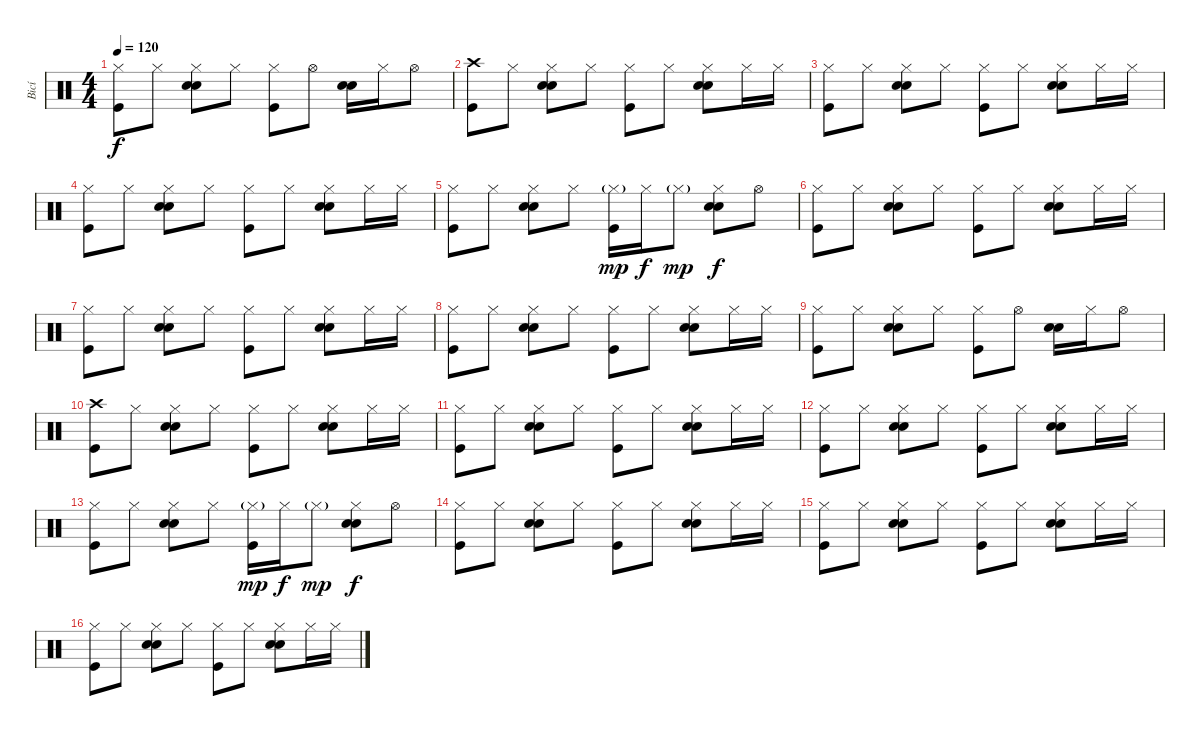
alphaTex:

\track ("Bicí" "Bicí") {instrument percussion}
\staff {score}
\articulation defaults
\ts (4 4)
\tempo 120
\clef neutral
\ks c
("Hi-Hat (closed)" "Kick (hit)").8{dy f} "Hi-Hat (closed)".8 ("Hi-Hat (closed)" "Hand Clap (hit)" "Electric Snare (hit)").8 "Hi-Hat (closed)".8 ("Hi-Hat (closed)" "Kick (hit)").8 "Hi-Hat (open)".8 ("Hand Clap (hit)" "Electric Snare (hit)").16 "Hi-Hat (closed)".16 "Hi-Hat (open)".8 |
("Crash high (hit)" "Kick (hit)").8 "Hi-Hat (closed)".8 ("Hi-Hat (closed)" "Hand Clap (hit)" "Electric Snare (hit)").8 "Hi-Hat (closed)".8 ("Hi-Hat (closed)" "Kick (hit)").8 "Hi-Hat (closed)".8 ("Hi-Hat (closed)" "Hand Clap (hit)" "Electric Snare (hit)").8 "Hi-Hat (closed)".16 "Hi-Hat (closed)".16 |
("Hi-Hat (closed)" "Kick (hit)").8 "Hi-Hat (closed)".8 ("Hi-Hat (closed)" "Hand Clap (hit)" "Electric Snare (hit)").8 "Hi-Hat (closed)".8 ("Hi-Hat (closed)" "Kick (hit)").8 "Hi-Hat (closed)".8 ("Hi-Hat (closed)" "Hand Clap (hit)" "Electric Snare (hit)").8 "Hi-Hat (closed)".16 "Hi-Hat (closed)".16 |
("Hi-Hat (closed)" "Kick (hit)").8 "Hi-Hat (closed)".8 ("Hi-Hat (closed)" "Hand Clap (hit)" "Electric Snare (hit)").8 "Hi-Hat (closed)".8 ("Hi-Hat (closed)" "Kick (hit)").8 "Hi-Hat (closed)".8 ("Hi-Hat (closed)" "Hand Clap (hit)" "Electric Snare (hit)").8 "Hi-Hat (closed)".16 "Hi-Hat (closed)".16 |
("Hi-Hat (closed)" "Kick (hit)").8 "Hi-Hat (closed)".8 ("Hi-Hat (closed)" "Hand Clap (hit)" "Electric Snare (hit)").8 "Hi-Hat (closed)".8 ("Hi-Hat (closed)"{g} "Kick (hit)").16{dy mp} "Hi-Hat (closed)".16{dy f} "Hi-Hat (closed)"{g}.8{dy mp} ("Hi-Hat (closed)" "Hand Clap (hit)" "Electric Snare (hit)").8{dy f} "Hi-Hat (open)".8 |
("Hi-Hat (closed)" "Kick (hit)").8 "Hi-Hat (closed)".8 ("Hi-Hat (closed)" "Hand Clap (hit)" "Electric Snare (hit)").8 "Hi-Hat (closed)".8 ("Hi-Hat (closed)" "Kick (hit)").8 "Hi-Hat (closed)".8 ("Hi-Hat (closed)" "Hand Clap (hit)" "Electric Snare (hit)").8 "Hi-Hat (closed)".16 "Hi-Hat (closed)".16 |
("Hi-Hat (closed)" "Kick (hit)").8 "Hi-Hat (closed)".8 ("Hi-Hat (closed)" "Hand Clap (hit)" "Electric Snare (hit)").8 "Hi-Hat (closed)".8 ("Hi-Hat (closed)" "Kick (hit)").8 "Hi-Hat (closed)".8 ("Hi-Hat (closed)" "Hand Clap (hit)" "Electric Snare (hit)").8 "Hi-Hat (closed)".16 "Hi-Hat (closed)".16 |
("Hi-Hat (closed)" "Kick (hit)").8 "Hi-Hat (closed)".8 ("Hi-Hat (closed)" "Hand Clap (hit)" "Electric Snare (hit)").8 "Hi-Hat (closed)".8 ("Hi-Hat (closed)" "Kick (hit)").8 "Hi-Hat (closed)".8 ("Hi-Hat (closed)" "Hand Clap (hit)" "Electric Snare (hit)").8 "Hi-Hat (closed)".16 "Hi-Hat (closed)".16 |
("Hi-Hat (closed)" "Kick (hit)").8 "Hi-Hat (closed)".8 ("Hi-Hat (closed)" "Hand Clap (hit)" "Electric Snare (hit)").8 "Hi-Hat (closed)".8 ("Hi-Hat (closed)" "Kick (hit)").8 "Hi-Hat (open)".8 ("Hand Clap (hit)" "Electric Snare (hit)").16 "Hi-Hat (closed)".16 "Hi-Hat (open)".8 |
("Crash high (hit)" "Kick (hit)").8 "Hi-Hat (closed)".8 ("Hi-Hat (closed)" "Hand Clap (hit)" "Electric Snare (hit)").8 "Hi-Hat (closed)".8 ("Hi-Hat (closed)" "Kick (hit)").8 "Hi-Hat (closed)".8 ("Hi-Hat (closed)" "Hand Clap (hit)" "Electric Snare (hit)").8 "Hi-Hat (closed)".16 "Hi-Hat (closed)".16 |
("Hi-Hat (closed)" "Kick (hit)").8 "Hi-Hat (closed)".8 ("Hi-Hat (closed)" "Hand Clap (hit)" "Electric Snare (hit)").8 "Hi-Hat (closed)".8 ("Hi-Hat (closed)" "Kick (hit)").8 "Hi-Hat (closed)".8 ("Hi-Hat (closed)" "Hand Clap (hit)" "Electric Snare (hit)").8 "Hi-Hat (closed)".16 "Hi-Hat (closed)".16 |
("Hi-Hat (closed)" "Kick (hit)").8 "Hi-Hat (closed)".8 ("Hi-Hat (closed)" "Hand Clap (hit)" "Electric Snare (hit)").8 "Hi-Hat (closed)".8 ("Hi-Hat (closed)" "Kick (hit)").8 "Hi-Hat (closed)".8 ("Hi-Hat (closed)" "Hand Clap (hit)" "Electric Snare (hit)").8 "Hi-Hat (closed)".16 "Hi-Hat (closed)".16 |
("Hi-Hat (closed)" "Kick (hit)").8 "Hi-Hat (closed)".8 ("Hi-Hat (closed)" "Hand Clap (hit)" "Electric Snare (hit)").8 "Hi-Hat (closed)".8 ("Hi-Hat (closed)"{g} "Kick (hit)").16{dy mp} "Hi-Hat (closed)".16{dy f} "Hi-Hat (closed)"{g}.8{dy mp} ("Hi-Hat (closed)" "Hand Clap (hit)" "Electric Snare (hit)").8{dy f} "Hi-Hat (open)".8 |
("Hi-Hat (closed)" "Kick (hit)").8 "Hi-Hat (closed)".8 ("Hi-Hat (closed)" "Hand Clap (hit)" "Electric Snare (hit)").8 "Hi-Hat (closed)".8 ("Hi-Hat (closed)" "Kick (hit)").8 "Hi-Hat (closed)".8 ("Hi-Hat (closed)" "Hand Clap (hit)" "Electric Snare (hit)").8 "Hi-Hat (closed)".16 "Hi-Hat (closed)".16 |
("Hi-Hat (closed)" "Kick (hit)").8 "Hi-Hat (closed)".8 ("Hi-Hat (closed)" "Hand Clap (hit)" "Electric Snare (hit)").8 "Hi-Hat (closed)".8 ("Hi-Hat (closed)" "Kick (hit)").8 "Hi-Hat (closed)".8 ("Hi-Hat (closed)" "Hand Clap (hit)" "Electric Snare (hit)").8 "Hi-Hat (closed)".16 "Hi-Hat (closed)".16 |
("Hi-Hat (closed)" "Kick (hit)").8 "Hi-Hat (closed)".8 ("Hi-Hat (closed)" "Hand Clap (hit)" "Electric Snare (hit)").8 "Hi-Hat (closed)".8 ("Hi-Hat (closed)" "Kick (hit)").8 "Hi-Hat (closed)".8 ("Hi-Hat (closed)" "Hand Clap (hit)" "Electric Snare (hit)").8 "Hi-Hat (closed)".16 "Hi-Hat (closed)".16
